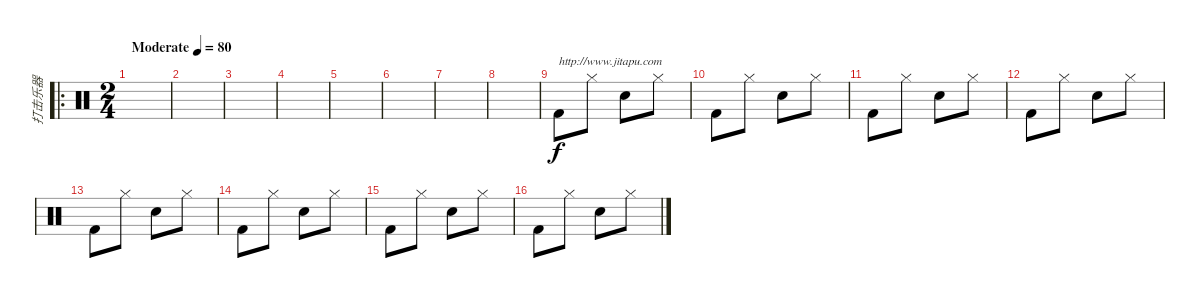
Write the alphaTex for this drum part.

\track ("打击乐器" "打击乐器") {instrument percussion}
\staff {score}
\articulation defaults
\ro
\ts (2 4)
\tempo (80 "Moderate")
\clef neutral
\ks c
|
|
|
|
|
|
|
|
"Kick (hit) 2".8{txt "http://www.jitapu.com"} "Hi-Hat (closed)".8 "Snare (hit) 2".8 "Hi-Hat (closed)".8 |
"Kick (hit) 2".8 "Hi-Hat (closed)".8 "Snare (hit) 2".8 "Hi-Hat (closed)".8 |
"Kick (hit) 2".8 "Hi-Hat (closed)".8 "Snare (hit) 2".8 "Hi-Hat (closed)".8 |
"Kick (hit) 2".8 "Hi-Hat (closed)".8 "Snare (hit) 2".8 "Hi-Hat (closed)".8 |
"Kick (hit) 2".8 "Hi-Hat (closed)".8 "Snare (hit) 2".8 "Hi-Hat (closed)".8 |
"Kick (hit) 2".8 "Hi-Hat (closed)".8 "Snare (hit) 2".8 "Hi-Hat (closed)".8 |
"Kick (hit) 2".8 "Hi-Hat (closed)".8 "Snare (hit) 2".8 "Hi-Hat (closed)".8 |
"Kick (hit) 2".8 "Hi-Hat (closed)".8 "Snare (hit) 2".8 "Hi-Hat (closed)".8
